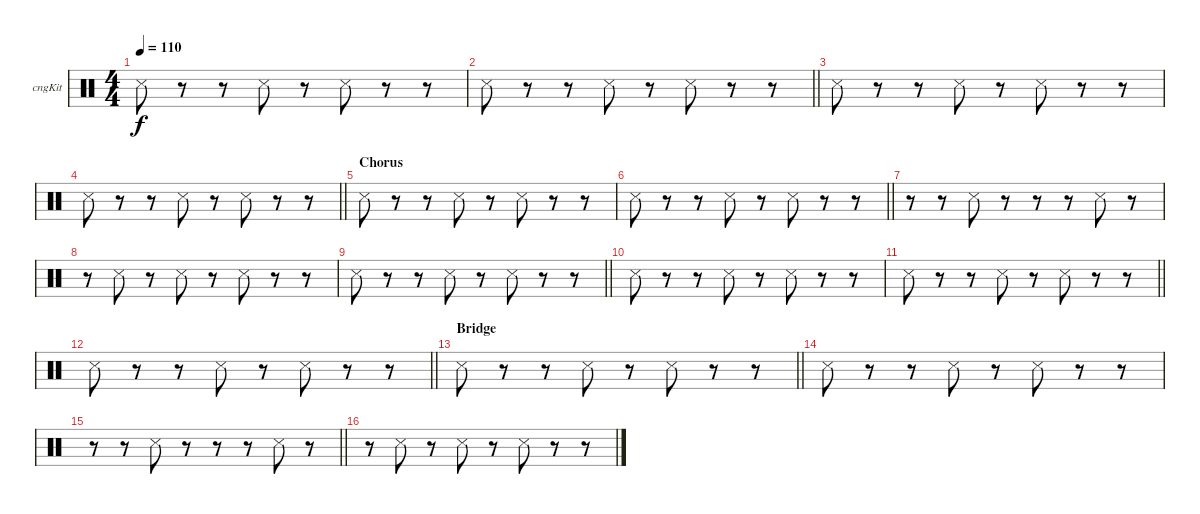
\bracketExtendMode groupsimilarinstruments
\firstSystemTrackNameOrientation horizontal
\otherSystemsTrackNameOrientation horizontal
\track ("Congas" "cngKit") {instrument percussion}
\staff {score}
\articulation defaults
\ts (4 4)
\tempo 110
\clef neutral
\ks c "Snare (side stick) 3".8{dy f}
r.8 r.8 "Snare (side stick) 3".8 r.8 "Snare (side stick) 3".8 r.8 r.8 |
\barLineRight lightlight "Snare (side stick) 3".8
r.8 r.8 "Snare (side stick) 3".8 r.8 "Snare (side stick) 3".8 r.8 r.8 |
"Snare (side stick) 3".8 r.8 r.8 "Snare (side stick) 3".8 r.8 "Snare (side stick) 3".8 r.8 r.8 |
\barLineRight lightlight "Snare (side stick) 3".8
r.8 r.8 "Snare (side stick) 3".8 r.8 "Snare (side stick) 3".8 r.8 r.8 |
\section ("" "Chorus")
"Snare (side stick) 3".8 r.8 r.8 "Snare (side stick) 3".8 r.8 "Snare (side stick) 3".8 r.8 r.8 |
\barLineRight lightlight "Snare (side stick) 3".8
r.8 r.8 "Snare (side stick) 3".8 r.8 "Snare (side stick) 3".8 r.8 r.8 |
r.8 r.8 "Snare (side stick) 3".8 r.8 r.8 r.8 "Snare (side stick) 3".8 r.8 |
r.8 "Snare (side stick) 3".8 r.8 "Snare (side stick) 3".8 r.8 "Snare (side stick) 3".8 r.8 r.8 |
\barLineRight lightlight "Snare (side stick) 3".8
r.8 r.8 "Snare (side stick) 3".8 r.8 "Snare (side stick) 3".8 r.8 r.8 |
"Snare (side stick) 3".8 r.8 r.8 "Snare (side stick) 3".8 r.8 "Snare (side stick) 3".8 r.8 r.8 |
\barLineRight lightlight "Snare (side stick) 3".8
r.8 r.8 "Snare (side stick) 3".8 r.8 "Snare (side stick) 3".8 r.8 r.8 |
\barLineRight lightlight "Snare (side stick) 3".8
r.8 r.8 "Snare (side stick) 3".8 r.8 "Snare (side stick) 3".8 r.8 r.8 |
\section ("" "Bridge")
\barLineRight lightlight "Snare (side stick) 3".8
r.8 r.8 "Snare (side stick) 3".8 r.8 "Snare (side stick) 3".8 r.8 r.8 |
"Snare (side stick) 3".8 r.8 r.8 "Snare (side stick) 3".8 r.8 "Snare (side stick) 3".8 r.8 r.8 |
\barLineRight lightlight
r.8 r.8 "Snare (side stick) 3".8 r.8 r.8 r.8 "Snare (side stick) 3".8 r.8 |
r.8 "Snare (side stick) 3".8 r.8 "Snare (side stick) 3".8 r.8 "Snare (side stick) 3".8 r.8 r.8
